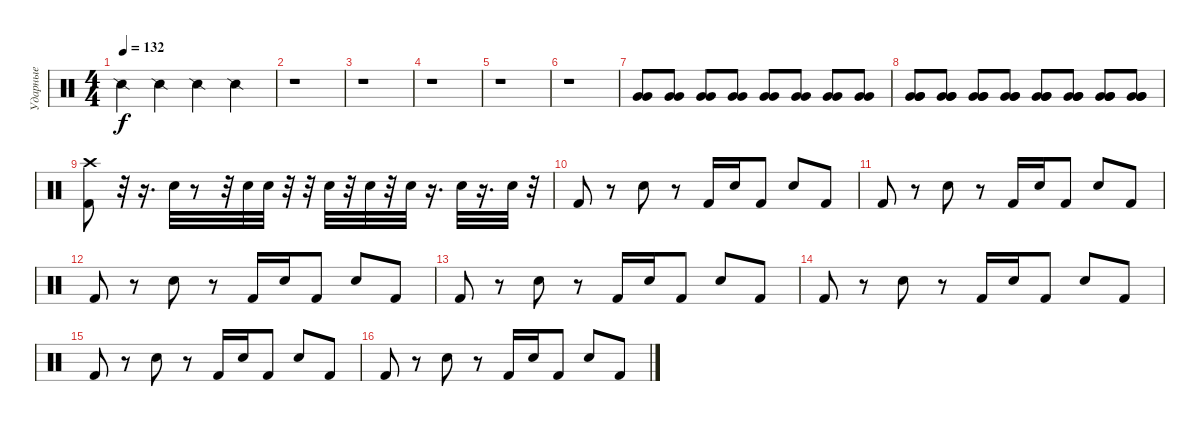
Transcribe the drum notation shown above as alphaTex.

\track ("Ударные" "Ударные") {instrument percussion}
\staff {score}
\articulation defaults
\ts (4 4)
\tempo 132
\clef neutral
\ks c "Snare (side stick) 2".4{dy f} "Snare (side stick) 2".4 "Snare (side stick) 2".4 "Snare (side stick) 2".4
|
r.1 |
r.1 |
r.1 |
r.1 |
r.1 |
("Very Low Tom (hit)" "Very Low Tom (hit)").8{volume 3} ("Very Low Tom (hit)" "Very Low Tom (hit)").8{volume 4} ("Very Low Tom (hit)" "Very Low Tom (hit)").8{volume 5} ("Very Low Tom (hit)" "Very Low Tom (hit)").8{volume 6} ("Very Low Tom (hit)" "Very Low Tom (hit)").8{volume 7} ("Very Low Tom (hit)" "Very Low Tom (hit)").8{volume 8} ("Very Low Tom (hit)" "Very Low Tom (hit)").8{volume 9} ("Very Low Tom (hit)" "Very Low Tom (hit)").8{volume 10} |
("Very Low Tom (hit)" "Very Low Tom (hit)" "Very Low Tom (hit)").8 ("Very Low Tom (hit)" "Very Low Tom (hit)" "Very Low Tom (hit)").8 ("Very Low Tom (hit)" "Very Low Tom (hit)" "Very Low Tom (hit)").8 ("Very Low Tom (hit)" "Very Low Tom (hit)" "Very Low Tom (hit)").8 ("Very Low Tom (hit)" "Very Low Tom (hit)" "Very Low Tom (hit)").8 ("Very Low Tom (hit)" "Very Low Tom (hit)" "Very Low Tom (hit)").8 ("Very Low Tom (hit)" "Very Low Tom (hit)" "Very Low Tom (hit)").8 ("Very Low Tom (hit)" "Very Low Tom (hit)" "Very Low Tom (hit)").8 |
("Kick (hit) 2" "Crash high (hit)").8 r.32 r.16{d} "Electric Snare (hit)".32 r.8 r.32 "Electric Snare (hit)".32 "Electric Snare (hit)".32 r.32 r.32 "Electric Snare (hit)".32 r.32 "Electric Snare (hit)".32 r.32 "Electric Snare (hit)".32 r.16{d} "Electric Snare (hit)".32 r.16{d} "Electric Snare (hit)".32 r.32 |
"Kick (hit) 2".8 r.8 "Electric Snare (hit)".8 r.8 "Kick (hit) 2".16 "Electric Snare (hit)".16 "Kick (hit) 2".8 "Electric Snare (hit)".8 "Kick (hit) 2".8 |
"Kick (hit) 2".8 r.8 "Electric Snare (hit)".8 r.8 "Kick (hit) 2".16 "Electric Snare (hit)".16 "Kick (hit) 2".8 "Electric Snare (hit)".8 "Kick (hit) 2".8 |
"Kick (hit) 2".8 r.8 "Electric Snare (hit)".8 r.8 "Kick (hit) 2".16 "Electric Snare (hit)".16 "Kick (hit) 2".8 "Electric Snare (hit)".8 "Kick (hit) 2".8 |
"Kick (hit) 2".8 r.8 "Electric Snare (hit)".8 r.8 "Kick (hit) 2".16 "Electric Snare (hit)".16 "Kick (hit) 2".8 "Electric Snare (hit)".8 "Kick (hit) 2".8 |
"Kick (hit) 2".8 r.8 "Electric Snare (hit)".8 r.8 "Kick (hit) 2".16 "Electric Snare (hit)".16 "Kick (hit) 2".8 "Electric Snare (hit)".8 "Kick (hit) 2".8 |
"Kick (hit) 2".8 r.8 "Electric Snare (hit)".8 r.8 "Kick (hit) 2".16 "Electric Snare (hit)".16 "Kick (hit) 2".8 "Electric Snare (hit)".8 "Kick (hit) 2".8 |
"Kick (hit) 2".8 r.8 "Electric Snare (hit)".8 r.8 "Kick (hit) 2".16 "Electric Snare (hit)".16 "Kick (hit) 2".8 "Electric Snare (hit)".8 "Kick (hit) 2".8
